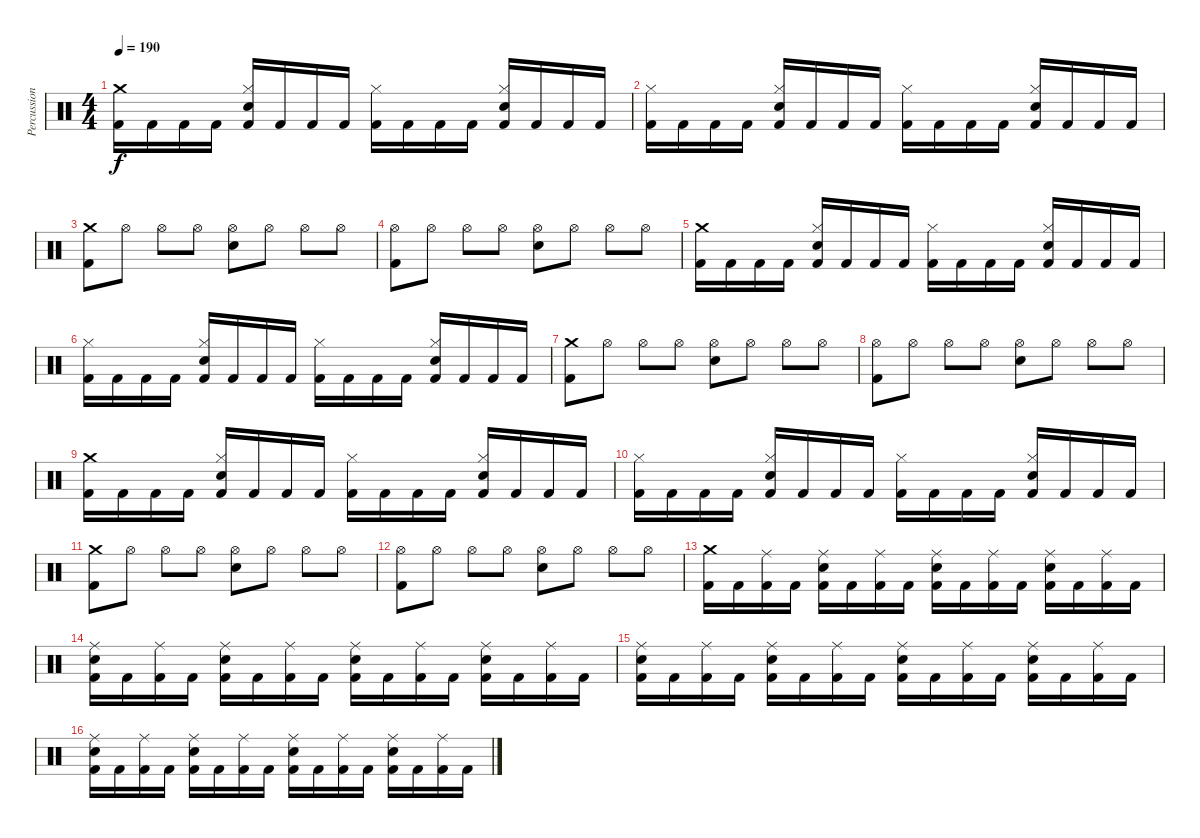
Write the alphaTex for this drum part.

\track ("Percussions" "Percussion") {instrument percussion}
\staff {score}
\articulation defaults
\ts (4 4)
\tempo 190
\clef neutral
\ks c
("Crash medium (hit)" "Kick (hit) 2").16{dy f} "Kick (hit) 2".16 "Kick (hit) 2".16 "Kick (hit) 2".16 ("Hi-Hat (closed)" "Electric Snare (hit)" "Kick (hit) 2").16 "Kick (hit) 2".16 "Kick (hit) 2".16 "Kick (hit) 2".16 ("Hi-Hat (closed)" "Kick (hit) 2").16 "Kick (hit) 2".16 "Kick (hit) 2".16 "Kick (hit) 2".16 ("Hi-Hat (closed)" "Electric Snare (hit)" "Kick (hit) 2").16 "Kick (hit) 2".16 "Kick (hit) 2".16 "Kick (hit) 2".16 |
("Hi-Hat (closed)" "Kick (hit) 2").16 "Kick (hit) 2".16 "Kick (hit) 2".16 "Kick (hit) 2".16 ("Hi-Hat (closed)" "Electric Snare (hit)" "Kick (hit) 2").16 "Kick (hit) 2".16 "Kick (hit) 2".16 "Kick (hit) 2".16 ("Hi-Hat (closed)" "Kick (hit) 2").16 "Kick (hit) 2".16 "Kick (hit) 2".16 "Kick (hit) 2".16 ("Hi-Hat (closed)" "Electric Snare (hit)" "Kick (hit) 2").16 "Kick (hit) 2".16 "Kick (hit) 2".16 "Kick (hit) 2".16 |
("Crash medium (hit)" "Kick (hit) 2").8 "Hi-Hat (open)".8 "Hi-Hat (open)".8 "Hi-Hat (open)".8 ("Hi-Hat (open)" "Electric Snare (hit)").8 "Hi-Hat (open)".8 "Hi-Hat (open)".8 "Hi-Hat (open)".8 |
("Hi-Hat (open)" "Kick (hit) 2").8 "Hi-Hat (open)".8 "Hi-Hat (open)".8 "Hi-Hat (open)".8 ("Hi-Hat (open)" "Electric Snare (hit)").8 "Hi-Hat (open)".8 "Hi-Hat (open)".8 "Hi-Hat (open)".8 |
("Crash medium (hit)" "Kick (hit) 2").16 "Kick (hit) 2".16 "Kick (hit) 2".16 "Kick (hit) 2".16 ("Hi-Hat (closed)" "Electric Snare (hit)" "Kick (hit) 2").16 "Kick (hit) 2".16 "Kick (hit) 2".16 "Kick (hit) 2".16 ("Hi-Hat (closed)" "Kick (hit) 2").16 "Kick (hit) 2".16 "Kick (hit) 2".16 "Kick (hit) 2".16 ("Hi-Hat (closed)" "Electric Snare (hit)" "Kick (hit) 2").16 "Kick (hit) 2".16 "Kick (hit) 2".16 "Kick (hit) 2".16 |
("Hi-Hat (closed)" "Kick (hit) 2").16 "Kick (hit) 2".16 "Kick (hit) 2".16 "Kick (hit) 2".16 ("Hi-Hat (closed)" "Electric Snare (hit)" "Kick (hit) 2").16 "Kick (hit) 2".16 "Kick (hit) 2".16 "Kick (hit) 2".16 ("Hi-Hat (closed)" "Kick (hit) 2").16 "Kick (hit) 2".16 "Kick (hit) 2".16 "Kick (hit) 2".16 ("Hi-Hat (closed)" "Electric Snare (hit)" "Kick (hit) 2").16 "Kick (hit) 2".16 "Kick (hit) 2".16 "Kick (hit) 2".16 |
("Crash medium (hit)" "Kick (hit) 2").8 "Hi-Hat (open)".8 "Hi-Hat (open)".8 "Hi-Hat (open)".8 ("Hi-Hat (open)" "Electric Snare (hit)").8 "Hi-Hat (open)".8 "Hi-Hat (open)".8 "Hi-Hat (open)".8 |
("Hi-Hat (open)" "Kick (hit) 2").8 "Hi-Hat (open)".8 "Hi-Hat (open)".8 "Hi-Hat (open)".8 ("Hi-Hat (open)" "Electric Snare (hit)").8 "Hi-Hat (open)".8 "Hi-Hat (open)".8 "Hi-Hat (open)".8 |
("Crash medium (hit)" "Kick (hit) 2").16 "Kick (hit) 2".16 "Kick (hit) 2".16 "Kick (hit) 2".16 ("Hi-Hat (closed)" "Electric Snare (hit)" "Kick (hit) 2").16 "Kick (hit) 2".16 "Kick (hit) 2".16 "Kick (hit) 2".16 ("Hi-Hat (closed)" "Kick (hit) 2").16 "Kick (hit) 2".16 "Kick (hit) 2".16 "Kick (hit) 2".16 ("Hi-Hat (closed)" "Electric Snare (hit)" "Kick (hit) 2").16 "Kick (hit) 2".16 "Kick (hit) 2".16 "Kick (hit) 2".16 |
("Hi-Hat (closed)" "Kick (hit) 2").16 "Kick (hit) 2".16 "Kick (hit) 2".16 "Kick (hit) 2".16 ("Hi-Hat (closed)" "Electric Snare (hit)" "Kick (hit) 2").16 "Kick (hit) 2".16 "Kick (hit) 2".16 "Kick (hit) 2".16 ("Hi-Hat (closed)" "Kick (hit) 2").16 "Kick (hit) 2".16 "Kick (hit) 2".16 "Kick (hit) 2".16 ("Hi-Hat (closed)" "Electric Snare (hit)" "Kick (hit) 2").16 "Kick (hit) 2".16 "Kick (hit) 2".16 "Kick (hit) 2".16 |
("Crash medium (hit)" "Kick (hit) 2").8 "Hi-Hat (open)".8 "Hi-Hat (open)".8 "Hi-Hat (open)".8 ("Hi-Hat (open)" "Electric Snare (hit)").8 "Hi-Hat (open)".8 "Hi-Hat (open)".8 "Hi-Hat (open)".8 |
("Hi-Hat (open)" "Kick (hit) 2").8 "Hi-Hat (open)".8 "Hi-Hat (open)".8 "Hi-Hat (open)".8 ("Hi-Hat (open)" "Electric Snare (hit)").8 "Hi-Hat (open)".8 "Hi-Hat (open)".8 "Hi-Hat (open)".8 |
("Crash medium (hit)" "Kick (hit) 2").16 "Kick (hit) 2".16 ("Ride (middle)" "Kick (hit) 2").16 "Kick (hit) 2".16 ("Ride (middle)" "Electric Snare (hit)" "Kick (hit) 2").16 "Kick (hit) 2".16 ("Ride (middle)" "Kick (hit) 2").16 "Kick (hit) 2".16 ("Ride (middle)" "Electric Snare (hit)" "Kick (hit) 2").16 "Kick (hit) 2".16 ("Ride (middle)" "Kick (hit) 2").16 "Kick (hit) 2".16 ("Ride (middle)" "Electric Snare (hit)" "Kick (hit) 2").16 "Kick (hit) 2".16 ("Ride (middle)" "Kick (hit) 2").16 "Kick (hit) 2".16 |
("Ride (middle)" "Electric Snare (hit)" "Kick (hit) 2").16 "Kick (hit) 2".16 ("Ride (middle)" "Kick (hit) 2").16 "Kick (hit) 2".16 ("Ride (middle)" "Electric Snare (hit)" "Kick (hit) 2").16 "Kick (hit) 2".16 ("Ride (middle)" "Kick (hit) 2").16 "Kick (hit) 2".16 ("Ride (middle)" "Electric Snare (hit)" "Kick (hit) 2").16 "Kick (hit) 2".16 ("Ride (middle)" "Kick (hit) 2").16 "Kick (hit) 2".16 ("Ride (middle)" "Electric Snare (hit)" "Kick (hit) 2").16 "Kick (hit) 2".16 ("Ride (middle)" "Kick (hit) 2").16 "Kick (hit) 2".16 |
("Ride (middle)" "Electric Snare (hit)" "Kick (hit) 2").16 "Kick (hit) 2".16 ("Ride (middle)" "Kick (hit) 2").16 "Kick (hit) 2".16 ("Ride (middle)" "Electric Snare (hit)" "Kick (hit) 2").16 "Kick (hit) 2".16 ("Ride (middle)" "Kick (hit) 2").16 "Kick (hit) 2".16 ("Ride (middle)" "Electric Snare (hit)" "Kick (hit) 2").16 "Kick (hit) 2".16 ("Ride (middle)" "Kick (hit) 2").16 "Kick (hit) 2".16 ("Ride (middle)" "Electric Snare (hit)" "Kick (hit) 2").16 "Kick (hit) 2".16 ("Ride (middle)" "Kick (hit) 2").16 "Kick (hit) 2".16 |
("Ride (middle)" "Electric Snare (hit)" "Kick (hit) 2").16 "Kick (hit) 2".16 ("Ride (middle)" "Kick (hit) 2").16 "Kick (hit) 2".16 ("Ride (middle)" "Electric Snare (hit)" "Kick (hit) 2").16 "Kick (hit) 2".16 ("Ride (middle)" "Kick (hit) 2").16 "Kick (hit) 2".16 ("Ride (middle)" "Electric Snare (hit)" "Kick (hit) 2").16 "Kick (hit) 2".16 ("Ride (middle)" "Kick (hit) 2").16 "Kick (hit) 2".16 ("Ride (middle)" "Electric Snare (hit)" "Kick (hit) 2").16 "Kick (hit) 2".16 ("Ride (middle)" "Kick (hit) 2").16 "Kick (hit) 2".16
